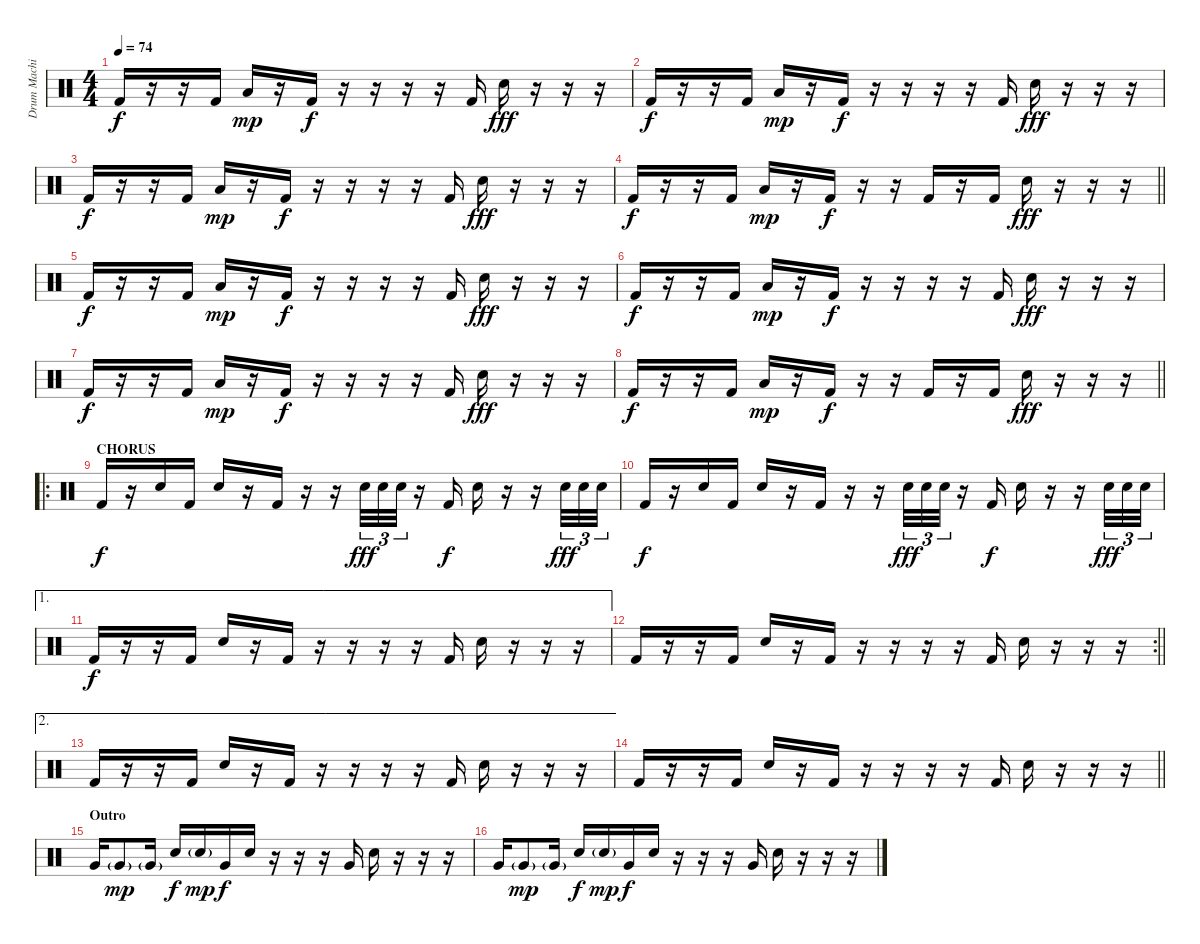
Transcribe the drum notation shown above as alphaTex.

\track ("Drum Machine" "Drum Machi") {instrument percussion}
\staff {score}
\articulation defaults
\ts (4 4)
\tempo 74
\clef neutral
\ks c "Kick (hit) 2".16{dy f}
r.16 r.16 "Kick (hit) 2".16 "Low Tom (hit)".16{dy mp} r.16 "Kick (hit) 2".16{dy f} r.16 r.16 r.16 r.16 "Kick (hit) 2".16 "Electric Snare (hit)".16{dy fff} r.16 r.16 r.16 |
"Kick (hit) 2".16{dy f} r.16 r.16 "Kick (hit) 2".16 "Low Tom (hit)".16{dy mp} r.16 "Kick (hit) 2".16{dy f} r.16 r.16 r.16 r.16 "Kick (hit) 2".16 "Electric Snare (hit)".16{dy fff} r.16 r.16 r.16 |
"Kick (hit) 2".16{dy f} r.16 r.16 "Kick (hit) 2".16 "Low Tom (hit)".16{dy mp} r.16 "Kick (hit) 2".16{dy f} r.16 r.16 r.16 r.16 "Kick (hit) 2".16 "Electric Snare (hit)".16{dy fff} r.16 r.16 r.16 |
\barLineRight lightlight "Kick (hit) 2".16{dy f}
r.16 r.16 "Kick (hit) 2".16 "Low Tom (hit)".16{dy mp} r.16 "Kick (hit) 2".16{dy f} r.16 r.16 "Kick (hit) 2".16 r.16 "Kick (hit) 2".16 "Electric Snare (hit)".16{dy fff} r.16 r.16 r.16 |
"Kick (hit) 2".16{dy f} r.16 r.16 "Kick (hit) 2".16 "Low Tom (hit)".16{dy mp} r.16 "Kick (hit) 2".16{dy f} r.16 r.16 r.16 r.16 "Kick (hit) 2".16 "Electric Snare (hit)".16{dy fff} r.16 r.16 r.16 |
"Kick (hit) 2".16{dy f} r.16 r.16 "Kick (hit) 2".16 "Low Tom (hit)".16{dy mp} r.16 "Kick (hit) 2".16{dy f} r.16 r.16 r.16 r.16 "Kick (hit) 2".16 "Electric Snare (hit)".16{dy fff} r.16 r.16 r.16 |
"Kick (hit) 2".16{dy f} r.16 r.16 "Kick (hit) 2".16 "Low Tom (hit)".16{dy mp} r.16 "Kick (hit) 2".16{dy f} r.16 r.16 r.16 r.16 "Kick (hit) 2".16 "Electric Snare (hit)".16{dy fff} r.16 r.16 r.16 |
\barLineRight lightlight "Kick (hit) 2".16{dy f}
r.16 r.16 "Kick (hit) 2".16 "Low Tom (hit)".16{dy mp} r.16 "Kick (hit) 2".16{dy f} r.16 r.16 "Kick (hit) 2".16 r.16 "Kick (hit) 2".16 "Electric Snare (hit)".16{dy fff} r.16 r.16 r.16 |
\ro
\section ("" "CHORUS")
"Kick (hit) 2".16{dy f} r.16 "Electric Snare (hit)".16 "Kick (hit) 2".16 "Electric Snare (hit)".16 r.16 "Kick (hit) 2".16 r.16 r.16 "Electric Snare (hit)".32{tu (3 2) dy fff} "Electric Snare (hit)".32{tu (3 2)} "Electric Snare (hit)".32{tu (3 2)} r.16 "Kick (hit) 2".16{dy f} "Electric Snare (hit)".16 r.16 r.16 "Electric Snare (hit)".32{tu (3 2) dy fff} "Electric Snare (hit)".32{tu (3 2)} "Electric Snare (hit)".32{tu (3 2)} |
"Kick (hit) 2".16{dy f} r.16 "Electric Snare (hit)".16 "Kick (hit) 2".16 "Electric Snare (hit)".16 r.16 "Kick (hit) 2".16 r.16 r.16 "Electric Snare (hit)".32{tu (3 2) dy fff} "Electric Snare (hit)".32{tu (3 2)} "Electric Snare (hit)".32{tu (3 2)} r.16 "Kick (hit) 2".16{dy f} "Electric Snare (hit)".16 r.16 r.16 "Electric Snare (hit)".32{tu (3 2) dy fff} "Electric Snare (hit)".32{tu (3 2)} "Electric Snare (hit)".32{tu (3 2)} |
\ae 1 "Kick (hit) 2".16{dy f}
r.16 r.16 "Kick (hit) 2".16 "Electric Snare (hit)".16 r.16 "Kick (hit) 2".16 r.16 r.16 r.16 r.16 "Kick (hit) 2".16 "Electric Snare (hit)".16 r.16 r.16 r.16 |
\rc 2
\barLineRight lightlight "Kick (hit) 2".16
r.16 r.16 "Kick (hit) 2".16 "Electric Snare (hit)".16 r.16 "Kick (hit) 2".16 r.16 r.16 r.16 r.16 "Kick (hit) 2".16 "Electric Snare (hit)".16 r.16 r.16 r.16 |
\ae 2 "Kick (hit) 2".16
r.16 r.16 "Kick (hit) 2".16 "Electric Snare (hit)".16 r.16 "Kick (hit) 2".16 r.16 r.16 r.16 r.16 "Kick (hit) 2".16 "Electric Snare (hit)".16 r.16 r.16 r.16 |
\barLineRight lightlight "Kick (hit) 2".16
r.16 r.16 "Kick (hit) 2".16 "Electric Snare (hit)".16 r.16 "Kick (hit) 2".16 r.16 r.16 r.16 r.16 "Kick (hit) 2".16 "Electric Snare (hit)".16 r.16 r.16 r.16 |
\section ("" "Outro")
"Very Low Tom (hit)".16 "Very Low Tom (hit)"{g}.8{dy mp} "Very Low Tom (hit)"{g}.16 "Electric Snare (hit)".16{dy f} "Electric Snare (hit)"{g}.16{dy mp} "Very Low Tom (hit)".16{dy f} "Electric Snare (hit)".16 r.16 r.16 r.16 "Very Low Tom (hit)".16 "Electric Snare (hit)".16 r.16 r.16 r.16 |
"Very Low Tom (hit)".16{volume 10} "Very Low Tom (hit)"{g}.8{dy mp} "Very Low Tom (hit)"{g}.16 "Electric Snare (hit)".16{dy f} "Electric Snare (hit)"{g}.16{dy mp} "Very Low Tom (hit)".16{dy f} "Electric Snare (hit)".16 r.16 r.16 r.16 "Very Low Tom (hit)".16 "Electric Snare (hit)".16 r.16 r.16 r.16
